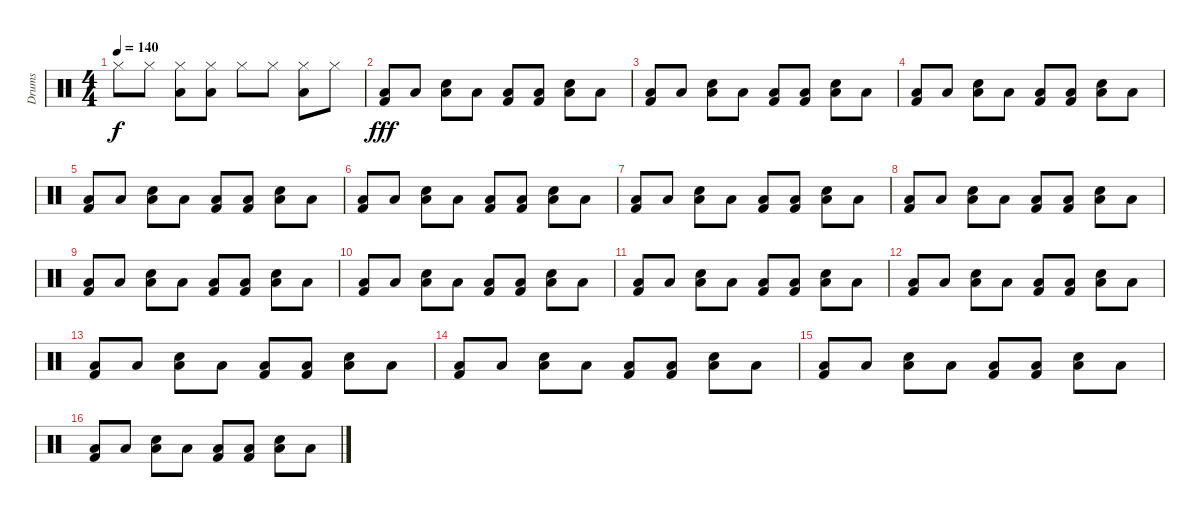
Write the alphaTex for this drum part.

\track ("Drums" "Drums") {instrument percussion}
\staff {score}
\articulation defaults
\ts (4 4)
\tempo 140
\clef neutral
\ks c "Hi-Hat (closed)".8{dy f} "Hi-Hat (closed)".8
("Hi-Hat (closed)" "Low Tom (hit)").8 ("Hi-Hat (closed)" "Low Tom (hit)").8 "Hi-Hat (closed)".8 "Hi-Hat (closed)".8 ("Hi-Hat (closed)" "Low Tom (hit)").8 "Hi-Hat (closed)".8 |
("Kick (hit) 2" "Low Floor Tom (hit)").8{dy fff} "Low Floor Tom (hit)".8 ("Snare (hit) 2" "Low Floor Tom (hit)").8 "Low Floor Tom (hit)".8 ("Kick (hit) 2" "Low Floor Tom (hit)").8 ("Kick (hit) 2" "Low Floor Tom (hit)").8 ("Snare (hit) 2" "Low Floor Tom (hit)").8 "Low Floor Tom (hit)".8 |
("Kick (hit) 2" "Low Floor Tom (hit)").8 "Low Floor Tom (hit)".8 ("Snare (hit) 2" "Low Floor Tom (hit)").8 "Low Floor Tom (hit)".8 ("Kick (hit) 2" "Low Floor Tom (hit)").8 ("Kick (hit) 2" "Low Floor Tom (hit)").8 ("Snare (hit) 2" "Low Floor Tom (hit)").8 "Low Floor Tom (hit)".8 |
("Kick (hit) 2" "Low Floor Tom (hit)").8 "Low Floor Tom (hit)".8 ("Snare (hit) 2" "Low Floor Tom (hit)").8 "Low Floor Tom (hit)".8 ("Kick (hit) 2" "Low Floor Tom (hit)").8 ("Kick (hit) 2" "Low Floor Tom (hit)").8 ("Snare (hit) 2" "Low Floor Tom (hit)").8 "Low Floor Tom (hit)".8 |
("Kick (hit) 2" "Low Floor Tom (hit)").8 "Low Floor Tom (hit)".8 ("Snare (hit) 2" "Low Floor Tom (hit)").8 "Low Floor Tom (hit)".8 ("Kick (hit) 2" "Low Floor Tom (hit)").8 ("Kick (hit) 2" "Low Floor Tom (hit)").8 ("Snare (hit) 2" "Low Floor Tom (hit)").8 "Low Floor Tom (hit)".8 |
("Kick (hit) 2" "Low Floor Tom (hit)").8 "Low Floor Tom (hit)".8 ("Snare (hit) 2" "Low Floor Tom (hit)").8 "Low Floor Tom (hit)".8 ("Kick (hit) 2" "Low Floor Tom (hit)").8 ("Kick (hit) 2" "Low Floor Tom (hit)").8 ("Snare (hit) 2" "Low Floor Tom (hit)").8 "Low Floor Tom (hit)".8 |
("Kick (hit) 2" "Low Floor Tom (hit)").8 "Low Floor Tom (hit)".8 ("Snare (hit) 2" "Low Floor Tom (hit)").8 "Low Floor Tom (hit)".8 ("Kick (hit) 2" "Low Floor Tom (hit)").8 ("Kick (hit) 2" "Low Floor Tom (hit)").8 ("Snare (hit) 2" "Low Floor Tom (hit)").8 "Low Floor Tom (hit)".8 |
("Kick (hit) 2" "Low Floor Tom (hit)").8 "Low Floor Tom (hit)".8 ("Snare (hit) 2" "Low Floor Tom (hit)").8 "Low Floor Tom (hit)".8 ("Kick (hit) 2" "Low Floor Tom (hit)").8 ("Kick (hit) 2" "Low Floor Tom (hit)").8 ("Snare (hit) 2" "Low Floor Tom (hit)").8 "Low Floor Tom (hit)".8 |
("Kick (hit) 2" "Low Floor Tom (hit)").8 "Low Floor Tom (hit)".8 ("Snare (hit) 2" "Low Floor Tom (hit)").8 "Low Floor Tom (hit)".8 ("Kick (hit) 2" "Low Floor Tom (hit)").8 ("Kick (hit) 2" "Low Floor Tom (hit)").8 ("Snare (hit) 2" "Low Floor Tom (hit)").8 "Low Floor Tom (hit)".8 |
("Kick (hit) 2" "Low Floor Tom (hit)").8 "Low Floor Tom (hit)".8 ("Snare (hit) 2" "Low Floor Tom (hit)").8 "Low Floor Tom (hit)".8 ("Kick (hit) 2" "Low Floor Tom (hit)").8 ("Kick (hit) 2" "Low Floor Tom (hit)").8 ("Snare (hit) 2" "Low Floor Tom (hit)").8 "Low Floor Tom (hit)".8 |
("Kick (hit) 2" "Low Floor Tom (hit)").8 "Low Floor Tom (hit)".8 ("Snare (hit) 2" "Low Floor Tom (hit)").8 "Low Floor Tom (hit)".8 ("Kick (hit) 2" "Low Floor Tom (hit)").8 ("Kick (hit) 2" "Low Floor Tom (hit)").8 ("Snare (hit) 2" "Low Floor Tom (hit)").8 "Low Floor Tom (hit)".8 |
("Kick (hit) 2" "Low Floor Tom (hit)").8 "Low Floor Tom (hit)".8 ("Snare (hit) 2" "Low Floor Tom (hit)").8 "Low Floor Tom (hit)".8 ("Kick (hit) 2" "Low Floor Tom (hit)").8 ("Kick (hit) 2" "Low Floor Tom (hit)").8 ("Snare (hit) 2" "Low Floor Tom (hit)").8 "Low Floor Tom (hit)".8 |
("Kick (hit) 2" "Low Floor Tom (hit)").8 "Low Floor Tom (hit)".8 ("Snare (hit) 2" "Low Floor Tom (hit)").8 "Low Floor Tom (hit)".8 ("Kick (hit) 2" "Low Floor Tom (hit)").8 ("Kick (hit) 2" "Low Floor Tom (hit)").8 ("Snare (hit) 2" "Low Floor Tom (hit)").8 "Low Floor Tom (hit)".8 |
("Kick (hit) 2" "Low Floor Tom (hit)").8 "Low Floor Tom (hit)".8 ("Snare (hit) 2" "Low Floor Tom (hit)").8 "Low Floor Tom (hit)".8 ("Kick (hit) 2" "Low Floor Tom (hit)").8 ("Kick (hit) 2" "Low Floor Tom (hit)").8 ("Snare (hit) 2" "Low Floor Tom (hit)").8 "Low Floor Tom (hit)".8 |
("Kick (hit) 2" "Low Floor Tom (hit)").8 "Low Floor Tom (hit)".8 ("Snare (hit) 2" "Low Floor Tom (hit)").8 "Low Floor Tom (hit)".8 ("Kick (hit) 2" "Low Floor Tom (hit)").8 ("Kick (hit) 2" "Low Floor Tom (hit)").8 ("Snare (hit) 2" "Low Floor Tom (hit)").8 "Low Floor Tom (hit)".8 |
("Kick (hit) 2" "Low Floor Tom (hit)").8 "Low Floor Tom (hit)".8 ("Snare (hit) 2" "Low Floor Tom (hit)").8 "Low Floor Tom (hit)".8 ("Kick (hit) 2" "Low Floor Tom (hit)").8 ("Kick (hit) 2" "Low Floor Tom (hit)").8 ("Snare (hit) 2" "Low Floor Tom (hit)").8 "Low Floor Tom (hit)".8
